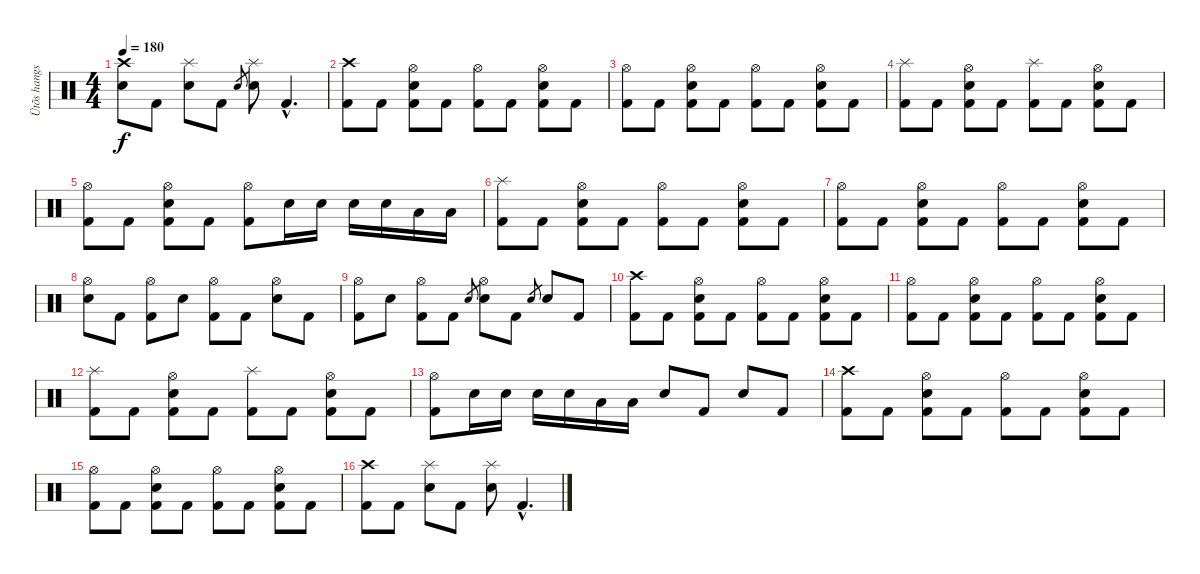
\track ("Ütõs hangszer" "Ütõs hangs") {instrument percussion}
\staff {score}
\articulation defaults
\ts (4 4)
\tempo 180
\clef neutral
\ks c
("Crash high (hit)" "Electric Snare (hit)").8{dy f} "Kick (hit) 2".8 ("Splash (hit)" "Electric Snare (hit)").8 "Kick (hit) 2".8 "Electric Snare (hit)".8{gr} ("Splash (hit)" "Electric Snare (hit)").8 "Kick (hit) 2"{hac}.4{d} |
("Crash high (hit)" "Kick (hit) 2").8 "Kick (hit) 2".8 ("Hi-Hat (open)" "Electric Snare (hit)" "Kick (hit) 2").8 "Kick (hit) 2".8 ("Hi-Hat (open)" "Kick (hit) 2").8 "Kick (hit) 2".8 ("Hi-Hat (open)" "Electric Snare (hit)" "Kick (hit) 2").8 "Kick (hit) 2".8 |
("Hi-Hat (open)" "Kick (hit) 2").8 "Kick (hit) 2".8 ("Hi-Hat (open)" "Electric Snare (hit)" "Kick (hit) 2").8 "Kick (hit) 2".8 ("Hi-Hat (open)" "Kick (hit) 2").8 "Kick (hit) 2".8 ("Hi-Hat (open)" "Electric Snare (hit)" "Kick (hit) 2").8 "Kick (hit) 2".8 |
("Splash (hit)" "Kick (hit) 2").8 "Kick (hit) 2".8 ("Hi-Hat (open)" "Electric Snare (hit)" "Kick (hit) 2").8 "Kick (hit) 2".8 ("Splash (hit)" "Kick (hit) 2").8 "Kick (hit) 2".8 ("Hi-Hat (open)" "Electric Snare (hit)" "Kick (hit) 2").8 "Kick (hit) 2".8 |
("Hi-Hat (open)" "Kick (hit) 2").8 "Kick (hit) 2".8 ("Hi-Hat (open)" "Electric Snare (hit)" "Kick (hit) 2").8 "Kick (hit) 2".8 ("Hi-Hat (open)" "Kick (hit) 2").8 "Electric Snare (hit)".16 "Electric Snare (hit)".16 "Electric Snare (hit)".16 "Electric Snare (hit)".16 "Low Tom (hit)".16 "Low Tom (hit)".16 |
("Splash (hit)" "Kick (hit) 2").8 "Kick (hit) 2".8 ("Hi-Hat (open)" "Electric Snare (hit)" "Kick (hit) 2").8 "Kick (hit) 2".8 ("Hi-Hat (open)" "Kick (hit) 2").8 "Kick (hit) 2".8 ("Hi-Hat (open)" "Electric Snare (hit)" "Kick (hit) 2").8 "Kick (hit) 2".8 |
("Hi-Hat (open)" "Kick (hit) 2").8 "Kick (hit) 2".8 ("Hi-Hat (open)" "Electric Snare (hit)" "Kick (hit) 2").8 "Kick (hit) 2".8 ("Hi-Hat (open)" "Kick (hit) 2").8 "Kick (hit) 2".8 ("Hi-Hat (open)" "Electric Snare (hit)" "Kick (hit) 2").8 "Kick (hit) 2".8 |
("Hi-Hat (open)" "Electric Snare (hit)").8 "Kick (hit) 2".8 ("Hi-Hat (open)" "Kick (hit) 2").8 "Electric Snare (hit)".8 ("Hi-Hat (open)" "Kick (hit) 2").8 "Kick (hit) 2".8 ("Hi-Hat (open)" "Electric Snare (hit)").8 "Kick (hit) 2".8 |
("Hi-Hat (open)" "Kick (hit) 2").8 "Electric Snare (hit)".8 ("Hi-Hat (open)" "Kick (hit) 2").8 "Kick (hit) 2".8 "Electric Snare (hit)".8{gr} ("Hi-Hat (open)" "Electric Snare (hit)").8 "Kick (hit) 2".8 "Electric Snare (hit)".8{gr} "Electric Snare (hit)".8 "Kick (hit) 2".8 |
("Crash high (hit)" "Kick (hit) 2").8 "Kick (hit) 2".8 ("Hi-Hat (open)" "Electric Snare (hit)" "Kick (hit) 2").8 "Kick (hit) 2".8 ("Hi-Hat (open)" "Kick (hit) 2").8 "Kick (hit) 2".8 ("Hi-Hat (open)" "Electric Snare (hit)" "Kick (hit) 2").8 "Kick (hit) 2".8 |
("Hi-Hat (open)" "Kick (hit) 2").8 "Kick (hit) 2".8 ("Hi-Hat (open)" "Electric Snare (hit)" "Kick (hit) 2").8 "Kick (hit) 2".8 ("Hi-Hat (open)" "Kick (hit) 2").8 "Kick (hit) 2".8 ("Hi-Hat (open)" "Electric Snare (hit)" "Kick (hit) 2").8 "Kick (hit) 2".8 |
("Splash (hit)" "Kick (hit) 2").8 "Kick (hit) 2".8 ("Hi-Hat (open)" "Electric Snare (hit)" "Kick (hit) 2").8 "Kick (hit) 2".8 ("Splash (hit)" "Kick (hit) 2").8 "Kick (hit) 2".8 ("Hi-Hat (open)" "Electric Snare (hit)" "Kick (hit) 2").8 "Kick (hit) 2".8 |
("Hi-Hat (open)" "Kick (hit) 2").8 "Electric Snare (hit)".16 "Electric Snare (hit)".16 "Electric Snare (hit)".16 "Electric Snare (hit)".16 "Low Tom (hit)".16 "Low Tom (hit)".16 "Electric Snare (hit)".8 "Kick (hit) 2".8 "Electric Snare (hit)".8 "Kick (hit) 2".8 |
("Crash high (hit)" "Kick (hit) 2").8 "Kick (hit) 2".8 ("Hi-Hat (open)" "Electric Snare (hit)" "Kick (hit) 2").8 "Kick (hit) 2".8 ("Hi-Hat (open)" "Kick (hit) 2").8 "Kick (hit) 2".8 ("Hi-Hat (open)" "Electric Snare (hit)" "Kick (hit) 2").8 "Kick (hit) 2".8 |
("Hi-Hat (open)" "Kick (hit) 2").8 "Kick (hit) 2".8 ("Hi-Hat (open)" "Electric Snare (hit)" "Kick (hit) 2").8 "Kick (hit) 2".8 ("Hi-Hat (open)" "Kick (hit) 2").8 "Kick (hit) 2".8 ("Hi-Hat (open)" "Electric Snare (hit)" "Kick (hit) 2").8 "Kick (hit) 2".8 |
("Crash high (hit)" "Kick (hit) 2").8 "Kick (hit) 2".8 ("Splash (hit)" "Electric Snare (hit)").8 "Kick (hit) 2".8 ("Splash (hit)" "Electric Snare (hit)").8 "Kick (hit) 2"{hac}.4{d}
